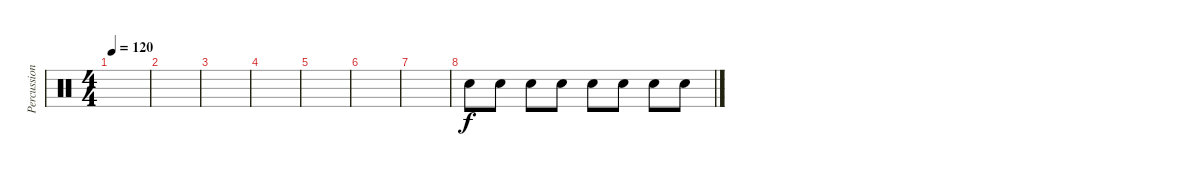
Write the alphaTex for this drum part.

\track ("Percussion" "Percussion") {instrument percussion}
\staff {score}
\articulation defaults
\ts (4 4)
\tempo 120
\clef neutral
\ks c
|
|
|
|
|
|
|
"Electric Snare (hit)".8 "Electric Snare (hit)".8 "Electric Snare (hit)".8 "Electric Snare (hit)".8 "Electric Snare (hit)".8 "Electric Snare (hit)".8 "Electric Snare (hit)".8 "Electric Snare (hit)".8
